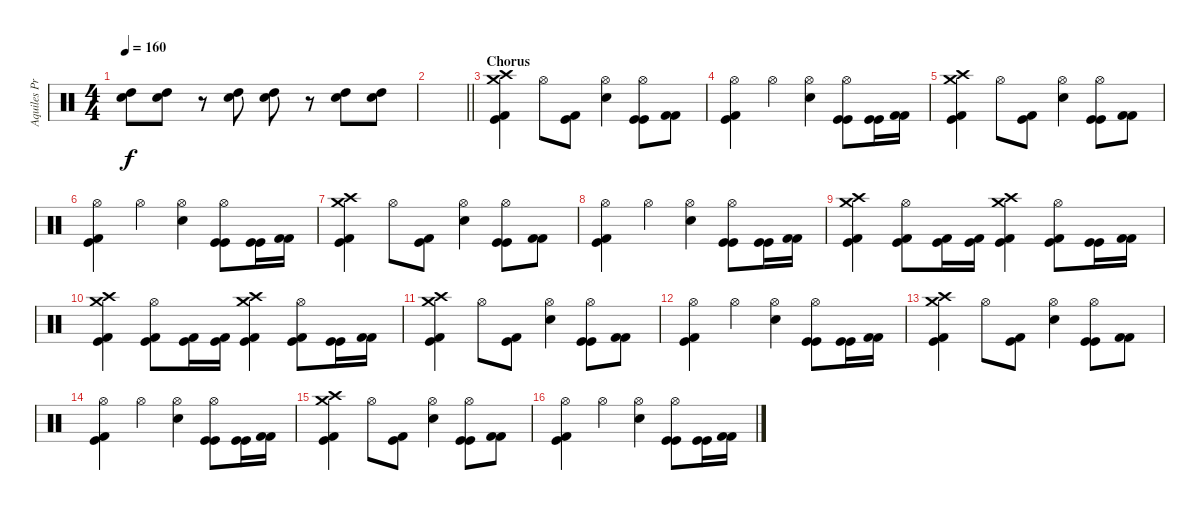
\track ("Aquiles Priester" "Aquiles Pr") {instrument percussion}
\staff {score}
\articulation defaults
\ts (4 4)
\tempo 160
\clef neutral
\ks c
("High Tom (hit)" "Electric Snare (hit)").8{dy f} ("High Tom (hit)" "Electric Snare (hit)").8 r.8 ("High Tom (hit)" "Electric Snare (hit)").8 ("High Tom (hit)" "Electric Snare (hit)").8 r.8 ("High Tom (hit)" "Electric Snare (hit)").8 ("High Tom (hit)" "Electric Snare (hit)").8 |
\barLineRight lightlight
|
\section ("" "Chorus")
("Crash medium (hit)" "Crash high (hit)" "Kick (hit)" "Kick (hit) 2").4 "Hi-Hat (open)".8 ("Kick (hit) 2" "Kick (hit)").8 ("Hi-Hat (open)" "Electric Snare (hit)").4 ("Hi-Hat (open)" "Kick (hit)" "Kick (hit)").8 ("Kick (hit) 2" "Kick (hit) 2").8 |
("Hi-Hat (open)" "Kick (hit) 2" "Kick (hit)").4 "Hi-Hat (open)".4 ("Hi-Hat (open)" "Electric Snare (hit)").4 ("Hi-Hat (open)" "Kick (hit)" "Kick (hit)").8 ("Kick (hit)" "Kick (hit)").16 ("Kick (hit) 2" "Kick (hit) 2").16 |
("Crash medium (hit)" "Crash high (hit)" "Kick (hit)" "Kick (hit) 2").4 "Hi-Hat (open)".8 ("Kick (hit) 2" "Kick (hit)").8 ("Hi-Hat (open)" "Electric Snare (hit)").4 ("Hi-Hat (open)" "Kick (hit)" "Kick (hit)").8 ("Kick (hit) 2" "Kick (hit) 2").8 |
("Hi-Hat (open)" "Kick (hit) 2" "Kick (hit)").4 "Hi-Hat (open)".4 ("Hi-Hat (open)" "Electric Snare (hit)").4 ("Hi-Hat (open)" "Kick (hit)" "Kick (hit)").8 ("Kick (hit)" "Kick (hit)").16 ("Kick (hit) 2" "Kick (hit) 2").16 |
("Crash medium (hit)" "Crash high (hit)" "Kick (hit)" "Kick (hit) 2").4 "Hi-Hat (open)".8 ("Kick (hit) 2" "Kick (hit)").8 ("Hi-Hat (open)" "Electric Snare (hit)").4 ("Hi-Hat (open)" "Kick (hit)" "Kick (hit)").8 ("Kick (hit) 2" "Kick (hit) 2").8 |
("Hi-Hat (open)" "Kick (hit) 2" "Kick (hit)").4 "Hi-Hat (open)".4 ("Hi-Hat (open)" "Electric Snare (hit)").4 ("Hi-Hat (open)" "Kick (hit)" "Kick (hit)").8 ("Kick (hit)" "Kick (hit)").16 ("Kick (hit) 2" "Kick (hit) 2").16 |
("Crash medium (hit)" "Crash high (hit)" "Kick (hit) 2" "Kick (hit)").4 ("Hi-Hat (open)" "Kick (hit)" "Kick (hit) 2").8 ("Kick (hit) 2" "Kick (hit)").16 ("Kick (hit) 2" "Kick (hit)").16 ("Crash medium (hit)" "Crash high (hit)" "Kick (hit) 2" "Kick (hit)").4 ("Hi-Hat (open)" "Kick (hit) 2" "Kick (hit)").8 ("Kick (hit)" "Kick (hit)").16 ("Kick (hit) 2" "Kick (hit) 2").16 |
("Crash medium (hit)" "Crash high (hit)" "Kick (hit) 2" "Kick (hit)").4 ("Hi-Hat (open)" "Kick (hit)" "Kick (hit) 2").8 ("Kick (hit) 2" "Kick (hit)").16 ("Kick (hit) 2" "Kick (hit)").16 ("Crash medium (hit)" "Crash high (hit)" "Kick (hit) 2" "Kick (hit)").4 ("Hi-Hat (open)" "Kick (hit) 2" "Kick (hit)").8 ("Kick (hit)" "Kick (hit)").16 ("Kick (hit) 2" "Kick (hit) 2").16 |
("Crash medium (hit)" "Crash high (hit)" "Kick (hit)" "Kick (hit) 2").4 "Hi-Hat (open)".8 ("Kick (hit) 2" "Kick (hit)").8 ("Hi-Hat (open)" "Electric Snare (hit)").4 ("Hi-Hat (open)" "Kick (hit)" "Kick (hit)").8 ("Kick (hit) 2" "Kick (hit) 2").8 |
("Hi-Hat (open)" "Kick (hit) 2" "Kick (hit)").4 "Hi-Hat (open)".4 ("Hi-Hat (open)" "Electric Snare (hit)").4 ("Hi-Hat (open)" "Kick (hit)" "Kick (hit)").8 ("Kick (hit)" "Kick (hit)").16 ("Kick (hit) 2" "Kick (hit) 2").16 |
("Crash medium (hit)" "Crash high (hit)" "Kick (hit)" "Kick (hit) 2").4 "Hi-Hat (open)".8 ("Kick (hit) 2" "Kick (hit)").8 ("Hi-Hat (open)" "Electric Snare (hit)").4 ("Hi-Hat (open)" "Kick (hit)" "Kick (hit)").8 ("Kick (hit) 2" "Kick (hit) 2").8 |
("Hi-Hat (open)" "Kick (hit) 2" "Kick (hit)").4 "Hi-Hat (open)".4 ("Hi-Hat (open)" "Electric Snare (hit)").4 ("Hi-Hat (open)" "Kick (hit)" "Kick (hit)").8 ("Kick (hit)" "Kick (hit)").16 ("Kick (hit) 2" "Kick (hit) 2").16 |
("Crash medium (hit)" "Crash high (hit)" "Kick (hit)" "Kick (hit) 2").4 "Hi-Hat (open)".8 ("Kick (hit) 2" "Kick (hit)").8 ("Hi-Hat (open)" "Electric Snare (hit)").4 ("Hi-Hat (open)" "Kick (hit)" "Kick (hit)").8 ("Kick (hit) 2" "Kick (hit) 2").8 |
("Hi-Hat (open)" "Kick (hit) 2" "Kick (hit)").4 "Hi-Hat (open)".4 ("Hi-Hat (open)" "Electric Snare (hit)").4 ("Hi-Hat (open)" "Kick (hit)" "Kick (hit)").8 ("Kick (hit)" "Kick (hit)").16 ("Kick (hit) 2" "Kick (hit) 2").16
